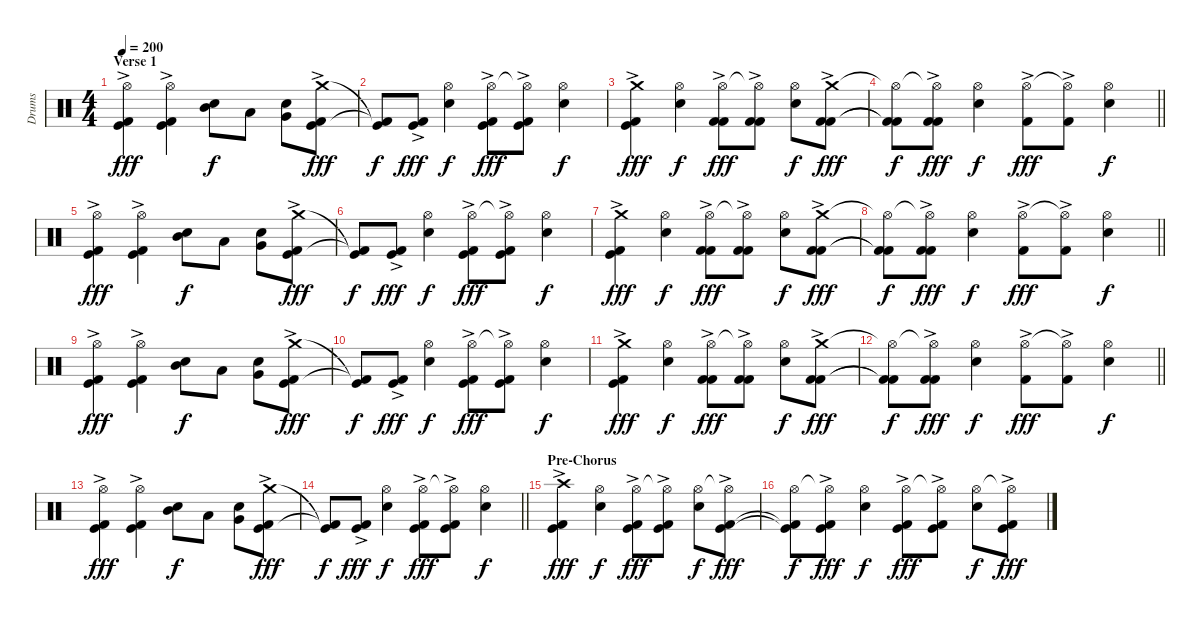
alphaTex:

\track ("Drums" "Drums") {instrument percussion}
\staff {score}
\articulation defaults
\ts (4 4)
\section ("" "Verse 1")
\tempo 200
\clef neutral
\ks c
("Hi-Hat (open)" "Kick (hit)" "Kick (hit) 2"{ac}).4{dy fff} ("Hi-Hat (open)" "Kick (hit)" "Kick (hit) 2"{ac}).4 ("Mid Tom (hit)" "Snare (hit) 2").8{dy f} "Low Tom (hit)".8 ("Very Low Tom (hit)" "Snare (hit) 2").8 ("Crash medium (hit)" "Kick (hit)" "Kick (hit) 2"{ac}).8{dy fff} |
("Kick (hit)"{t} "Kick (hit) 2"{t}).8{dy f} ("Kick (hit)" "Kick (hit) 2"{ac}).8{dy fff} ("Hi-Hat (open)" "Electric Snare (hit)").4{dy f} ("Hi-Hat (open)" "Kick (hit)" "Kick (hit) 2"{ac}).8{dy fff} ("Hi-Hat (open)"{t} "Kick (hit)" "Kick (hit) 2"{ac}).8 ("Hi-Hat (open)" "Electric Snare (hit)").4{dy f} |
("Crash medium (hit)" "Kick (hit)" "Kick (hit) 2"{ac}).4{dy fff} ("Hi-Hat (open)" "Electric Snare (hit)").4{dy f} ("Hi-Hat (open)" "Kick (hit) 2" "Kick (hit) 2"{ac}).8{dy fff} ("Hi-Hat (open)"{t} "Kick (hit) 2" "Kick (hit) 2"{ac}).8 ("Hi-Hat (open)" "Electric Snare (hit)").8{dy f} ("Crash medium (hit)" "Kick (hit) 2" "Kick (hit) 2"{ac}).8{dy fff} |
\barLineRight lightlight
("Hi-Hat (open)"{t} "Kick (hit) 2"{t} "Kick (hit) 2"{t}).8{dy f} ("Hi-Hat (open)"{t} "Kick (hit) 2" "Kick (hit) 2"{ac}).8{dy fff} ("Hi-Hat (open)" "Electric Snare (hit)").4{dy f} ("Hi-Hat (open)" "Kick (hit) 2"{ac}).8{dy fff} ("Hi-Hat (open)"{t} "Kick (hit) 2"{ac}).8 ("Hi-Hat (open)" "Electric Snare (hit)").4{dy f} |
("Hi-Hat (open)" "Kick (hit)" "Kick (hit) 2"{ac}).4{dy fff} ("Hi-Hat (open)" "Kick (hit)" "Kick (hit) 2"{ac}).4 ("Mid Tom (hit)" "Snare (hit) 2").8{dy f} "Low Tom (hit)".8 ("Very Low Tom (hit)" "Snare (hit) 2").8 ("Crash medium (hit)" "Kick (hit)" "Kick (hit) 2"{ac}).8{dy fff} |
("Kick (hit)"{t} "Kick (hit) 2"{t}).8{dy f} ("Kick (hit)" "Kick (hit) 2"{ac}).8{dy fff} ("Hi-Hat (open)" "Electric Snare (hit)").4{dy f} ("Hi-Hat (open)" "Kick (hit)" "Kick (hit) 2"{ac}).8{dy fff} ("Hi-Hat (open)"{t} "Kick (hit)" "Kick (hit) 2"{ac}).8 ("Hi-Hat (open)" "Electric Snare (hit)").4{dy f} |
("Crash medium (hit)" "Kick (hit)" "Kick (hit) 2"{ac}).4{dy fff} ("Hi-Hat (open)" "Electric Snare (hit)").4{dy f} ("Hi-Hat (open)" "Kick (hit) 2" "Kick (hit) 2"{ac}).8{dy fff} ("Hi-Hat (open)"{t} "Kick (hit) 2" "Kick (hit) 2"{ac}).8 ("Hi-Hat (open)" "Electric Snare (hit)").8{dy f} ("Crash medium (hit)" "Kick (hit) 2" "Kick (hit) 2"{ac}).8{dy fff} |
\barLineRight lightlight
("Hi-Hat (open)"{t} "Kick (hit) 2"{t} "Kick (hit) 2"{t}).8{dy f} ("Hi-Hat (open)"{t} "Kick (hit) 2" "Kick (hit) 2"{ac}).8{dy fff} ("Hi-Hat (open)" "Electric Snare (hit)").4{dy f} ("Hi-Hat (open)" "Kick (hit) 2"{ac}).8{dy fff} ("Hi-Hat (open)"{t} "Kick (hit) 2"{ac}).8 ("Hi-Hat (open)" "Electric Snare (hit)").4{dy f} |
("Hi-Hat (open)" "Kick (hit)" "Kick (hit) 2"{ac}).4{dy fff} ("Hi-Hat (open)" "Kick (hit)" "Kick (hit) 2"{ac}).4 ("Mid Tom (hit)" "Snare (hit) 2").8{dy f} "Low Tom (hit)".8 ("Very Low Tom (hit)" "Snare (hit) 2").8 ("Crash medium (hit)" "Kick (hit)" "Kick (hit) 2"{ac}).8{dy fff} |
("Kick (hit)"{t} "Kick (hit) 2"{t}).8{dy f} ("Kick (hit)" "Kick (hit) 2"{ac}).8{dy fff} ("Hi-Hat (open)" "Electric Snare (hit)").4{dy f} ("Hi-Hat (open)" "Kick (hit)" "Kick (hit) 2"{ac}).8{dy fff} ("Hi-Hat (open)"{t} "Kick (hit)" "Kick (hit) 2"{ac}).8 ("Hi-Hat (open)" "Electric Snare (hit)").4{dy f} |
("Crash medium (hit)" "Kick (hit)" "Kick (hit) 2"{ac}).4{dy fff} ("Hi-Hat (open)" "Electric Snare (hit)").4{dy f} ("Hi-Hat (open)" "Kick (hit) 2" "Kick (hit) 2"{ac}).8{dy fff} ("Hi-Hat (open)"{t} "Kick (hit) 2" "Kick (hit) 2"{ac}).8 ("Hi-Hat (open)" "Electric Snare (hit)").8{dy f} ("Crash medium (hit)" "Kick (hit) 2" "Kick (hit) 2"{ac}).8{dy fff} |
\barLineRight lightlight
("Hi-Hat (open)"{t} "Kick (hit) 2"{t} "Kick (hit) 2"{t}).8{dy f} ("Hi-Hat (open)"{t} "Kick (hit) 2" "Kick (hit) 2"{ac}).8{dy fff} ("Hi-Hat (open)" "Electric Snare (hit)").4{dy f} ("Hi-Hat (open)" "Kick (hit) 2"{ac}).8{dy fff} ("Hi-Hat (open)"{t} "Kick (hit) 2"{ac}).8 ("Hi-Hat (open)" "Electric Snare (hit)").4{dy f} |
("Hi-Hat (open)" "Kick (hit)" "Kick (hit) 2"{ac}).4{dy fff} ("Hi-Hat (open)" "Kick (hit)" "Kick (hit) 2"{ac}).4 ("Mid Tom (hit)" "Snare (hit) 2").8{dy f} "Low Tom (hit)".8 ("Very Low Tom (hit)" "Snare (hit) 2").8 ("Crash medium (hit)" "Kick (hit)" "Kick (hit) 2"{ac}).8{dy fff} |
\barLineRight lightlight
("Kick (hit)"{t} "Kick (hit) 2"{t}).8{dy f} ("Kick (hit)" "Kick (hit) 2"{ac}).8{dy fff} ("Hi-Hat (open)" "Electric Snare (hit)").4{dy f} ("Hi-Hat (open)" "Kick (hit)" "Kick (hit) 2"{ac}).8{dy fff} ("Hi-Hat (open)"{t} "Kick (hit)" "Kick (hit) 2"{ac}).8 ("Hi-Hat (open)" "Electric Snare (hit)").4{dy f} |
\section ("" "Pre-Chorus")
("Crash high (hit)" "Kick (hit)" "Kick (hit) 2"{ac}).4{dy fff} ("Hi-Hat (open)" "Electric Snare (hit)").4{dy f} ("Hi-Hat (open)" "Kick (hit)" "Kick (hit) 2"{ac}).8{dy fff} ("Hi-Hat (open)"{t} "Kick (hit)" "Kick (hit) 2"{ac}).8 ("Hi-Hat (open)" "Electric Snare (hit)").8{dy f} ("Hi-Hat (open)"{t} "Kick (hit)" "Kick (hit) 2"{ac}).8{dy fff} |
("Hi-Hat (open)" "Kick (hit)"{t} "Kick (hit) 2"{t}).8{dy f} ("Hi-Hat (open)"{t} "Kick (hit)" "Kick (hit) 2"{ac}).8{dy fff} ("Hi-Hat (open)" "Electric Snare (hit)").4{dy f} ("Hi-Hat (open)" "Kick (hit)" "Kick (hit) 2"{ac}).8{dy fff} ("Hi-Hat (open)"{t} "Kick (hit)" "Kick (hit) 2"{ac}).8 ("Hi-Hat (open)" "Electric Snare (hit)").8{dy f} ("Hi-Hat (open)"{t} "Kick (hit)" "Kick (hit) 2"{ac}).8{dy fff}
